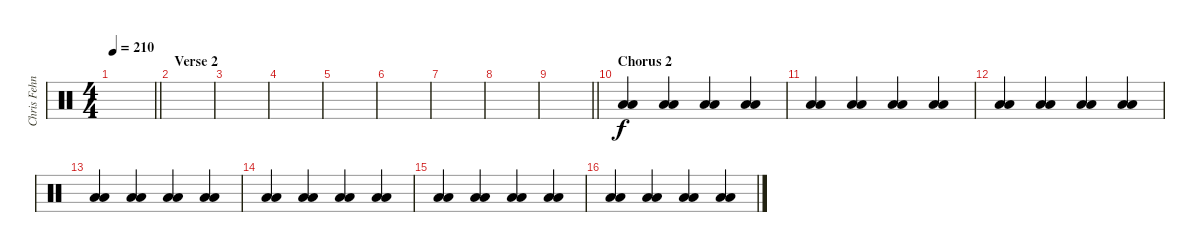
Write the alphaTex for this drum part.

\track ("Chris Fehn" "Chris Fehn") {instrument percussion}
\staff {score}
\articulation defaults
\ts (4 4)
\tempo 210
\clef neutral
\barLineRight lightlight
\ks c
|
\section ("" "Verse 2")
|
|
|
|
|
|
|
\barLineRight lightlight
|
\section ("" "Chorus 2")
("Low Floor Tom (hit)" "Low Floor Tom (hit)").4 ("Low Floor Tom (hit)" "Low Floor Tom (hit)").4 ("Low Floor Tom (hit)" "Low Floor Tom (hit)").4 ("Low Floor Tom (hit)" "Low Floor Tom (hit)").4 |
("Low Floor Tom (hit)" "Low Floor Tom (hit)").4 ("Low Floor Tom (hit)" "Low Floor Tom (hit)").4 ("Low Floor Tom (hit)" "Low Floor Tom (hit)").4 ("Low Floor Tom (hit)" "Low Floor Tom (hit)").4 |
("Low Floor Tom (hit)" "Low Floor Tom (hit)").4 ("Low Floor Tom (hit)" "Low Floor Tom (hit)").4 ("Low Floor Tom (hit)" "Low Floor Tom (hit)").4 ("Low Floor Tom (hit)" "Low Floor Tom (hit)").4 |
("Low Floor Tom (hit)" "Low Floor Tom (hit)").4 ("Low Floor Tom (hit)" "Low Floor Tom (hit)").4 ("Low Floor Tom (hit)" "Low Floor Tom (hit)").4 ("Low Floor Tom (hit)" "Low Floor Tom (hit)").4 |
("Low Floor Tom (hit)" "Low Floor Tom (hit)").4 ("Low Floor Tom (hit)" "Low Floor Tom (hit)").4 ("Low Floor Tom (hit)" "Low Floor Tom (hit)").4 ("Low Floor Tom (hit)" "Low Floor Tom (hit)").4 |
("Low Floor Tom (hit)" "Low Floor Tom (hit)").4 ("Low Floor Tom (hit)" "Low Floor Tom (hit)").4 ("Low Floor Tom (hit)" "Low Floor Tom (hit)").4 ("Low Floor Tom (hit)" "Low Floor Tom (hit)").4 |
("Low Floor Tom (hit)" "Low Floor Tom (hit)").4 ("Low Floor Tom (hit)" "Low Floor Tom (hit)").4 ("Low Floor Tom (hit)" "Low Floor Tom (hit)").4 ("Low Floor Tom (hit)" "Low Floor Tom (hit)").4
